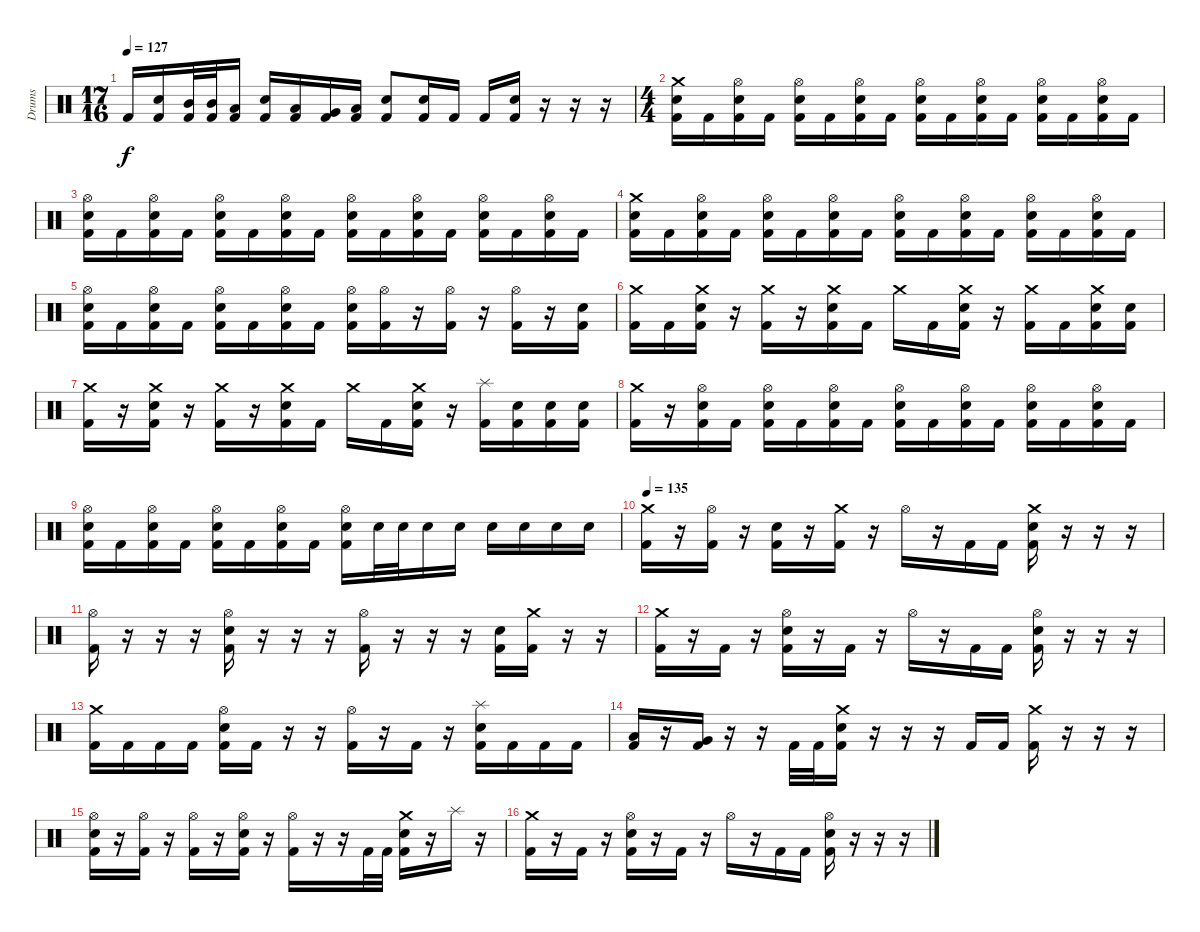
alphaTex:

\track ("Drums" "Drums") {instrument percussion}
\staff {score}
\articulation defaults
\ts (17 16)
\tempo 127
\clef neutral
\ks c "Kick (hit) 2".16{dy f}
("Electric Snare (hit)" "Kick (hit) 2").16 ("Mid Tom (hit)" "Kick (hit) 2").32 ("Mid Tom (hit)" "Kick (hit) 2").32 ("Low Tom (hit)" "Kick (hit) 2").16 ("Electric Snare (hit)" "Kick (hit) 2").16 ("Low Tom (hit)" "Kick (hit) 2").16 ("Very Low Tom (hit)" "Kick (hit) 2").16 ("Low Floor Tom (hit)" "Kick (hit) 2").16 ("Electric Snare (hit)" "Kick (hit) 2").8 ("Electric Snare (hit)" "Kick (hit) 2").16 "Kick (hit) 2".16 "Kick (hit) 2".16 ("Electric Snare (hit)" "Kick (hit) 2").16 r.16 r.16 r.16 |
\ts (4 4)
("Crash medium (hit)" "Electric Snare (hit)" "Kick (hit) 2").16 "Kick (hit) 2".16 ("Hi-Hat (open)" "Electric Snare (hit)" "Kick (hit) 2").16 "Kick (hit) 2".16 ("Hi-Hat (open)" "Electric Snare (hit)" "Kick (hit) 2").16 "Kick (hit) 2".16 ("Hi-Hat (open)" "Electric Snare (hit)" "Kick (hit) 2").16 "Kick (hit) 2".16 ("Hi-Hat (open)" "Electric Snare (hit)" "Kick (hit) 2").16 "Kick (hit) 2".16 ("Hi-Hat (open)" "Electric Snare (hit)" "Kick (hit) 2").16 "Kick (hit) 2".16 ("Hi-Hat (open)" "Electric Snare (hit)" "Kick (hit) 2").16 "Kick (hit) 2".16 ("Hi-Hat (open)" "Electric Snare (hit)" "Kick (hit) 2").16 "Kick (hit) 2".16 |
("Hi-Hat (open)" "Electric Snare (hit)" "Kick (hit) 2").16 "Kick (hit) 2".16 ("Hi-Hat (open)" "Electric Snare (hit)" "Kick (hit) 2").16 "Kick (hit) 2".16 ("Hi-Hat (open)" "Electric Snare (hit)" "Kick (hit) 2").16 "Kick (hit) 2".16 ("Hi-Hat (open)" "Electric Snare (hit)" "Kick (hit) 2").16 "Kick (hit) 2".16 ("Hi-Hat (open)" "Electric Snare (hit)" "Kick (hit) 2").16 "Kick (hit) 2".16 ("Hi-Hat (open)" "Electric Snare (hit)" "Kick (hit) 2").16 "Kick (hit) 2".16 ("Hi-Hat (open)" "Electric Snare (hit)" "Kick (hit) 2").16 "Kick (hit) 2".16 ("Hi-Hat (open)" "Electric Snare (hit)" "Kick (hit) 2").16 "Kick (hit) 2".16 |
("Crash medium (hit)" "Electric Snare (hit)" "Kick (hit) 2").16 "Kick (hit) 2".16 ("Hi-Hat (open)" "Electric Snare (hit)" "Kick (hit) 2").16 "Kick (hit) 2".16 ("Hi-Hat (open)" "Electric Snare (hit)" "Kick (hit) 2").16 "Kick (hit) 2".16 ("Hi-Hat (open)" "Electric Snare (hit)" "Kick (hit) 2").16 "Kick (hit) 2".16 ("Hi-Hat (open)" "Electric Snare (hit)" "Kick (hit) 2").16 "Kick (hit) 2".16 ("Hi-Hat (open)" "Electric Snare (hit)" "Kick (hit) 2").16 "Kick (hit) 2".16 ("Hi-Hat (open)" "Electric Snare (hit)" "Kick (hit) 2").16 "Kick (hit) 2".16 ("Hi-Hat (open)" "Electric Snare (hit)" "Kick (hit) 2").16 "Kick (hit) 2".16 |
("Hi-Hat (open)" "Electric Snare (hit)" "Kick (hit) 2").16 "Kick (hit) 2".16 ("Hi-Hat (open)" "Electric Snare (hit)" "Kick (hit) 2").16 "Kick (hit) 2".16 ("Hi-Hat (open)" "Electric Snare (hit)" "Kick (hit) 2").16 "Kick (hit) 2".16 ("Hi-Hat (open)" "Electric Snare (hit)" "Kick (hit) 2").16 "Kick (hit) 2".16 ("Hi-Hat (open)" "Electric Snare (hit)" "Kick (hit) 2").16 ("Hi-Hat (open)" "Kick (hit) 2").16 r.16 ("Hi-Hat (open)" "Kick (hit) 2").16 r.16 ("Hi-Hat (open)" "Kick (hit) 2").16 r.16 ("Electric Snare (hit)" "Kick (hit) 2").16 |
("Crash medium (hit)" "Kick (hit) 2").16 "Kick (hit) 2".16 ("Crash medium (hit)" "Electric Snare (hit)" "Kick (hit) 2").16 r.16 ("Crash medium (hit)" "Kick (hit) 2").16 r.16 ("Crash medium (hit)" "Electric Snare (hit)" "Kick (hit) 2").16 "Kick (hit) 2".16 "Crash medium (hit)".16 "Kick (hit) 2".16 ("Crash medium (hit)" "Electric Snare (hit)" "Kick (hit) 2").16 r.16 ("Crash medium (hit)" "Kick (hit) 2").16 "Kick (hit) 2".16 ("Crash medium (hit)" "Electric Snare (hit)" "Kick (hit) 2").16 ("Electric Snare (hit)" "Kick (hit) 2").16 |
("Crash medium (hit)" "Kick (hit) 2").16 r.16 ("Crash medium (hit)" "Electric Snare (hit)" "Kick (hit) 2").16 r.16 ("Crash medium (hit)" "Kick (hit) 2").16 r.16 ("Crash medium (hit)" "Electric Snare (hit)" "Kick (hit) 2").16 "Kick (hit) 2".16 "Crash medium (hit)".16 "Kick (hit) 2".16 ("Crash medium (hit)" "Electric Snare (hit)" "Kick (hit) 2").16 r.16 ("Splash (hit)" "Kick (hit) 2").16 ("Electric Snare (hit)" "Kick (hit) 2").16 ("Electric Snare (hit)" "Kick (hit) 2").16 ("Electric Snare (hit)" "Kick (hit) 2").16 |
("Crash medium (hit)" "Kick (hit) 2").16 r.16 ("Hi-Hat (open)" "Electric Snare (hit)" "Kick (hit) 2").16 "Kick (hit) 2".16 ("Hi-Hat (open)" "Electric Snare (hit)" "Kick (hit) 2").16 "Kick (hit) 2".16 ("Hi-Hat (open)" "Electric Snare (hit)" "Kick (hit) 2").16 "Kick (hit) 2".16 ("Hi-Hat (open)" "Electric Snare (hit)" "Kick (hit) 2").16 "Kick (hit) 2".16 ("Hi-Hat (open)" "Electric Snare (hit)" "Kick (hit) 2").16 "Kick (hit) 2".16 ("Hi-Hat (open)" "Electric Snare (hit)" "Kick (hit) 2").16 "Kick (hit) 2".16 ("Hi-Hat (open)" "Electric Snare (hit)" "Kick (hit) 2").16 "Kick (hit) 2".16 |
("Hi-Hat (open)" "Electric Snare (hit)" "Kick (hit) 2").16 "Kick (hit) 2".16 ("Hi-Hat (open)" "Electric Snare (hit)" "Kick (hit) 2").16 "Kick (hit) 2".16 ("Hi-Hat (open)" "Electric Snare (hit)" "Kick (hit) 2").16 "Kick (hit) 2".16 ("Hi-Hat (open)" "Electric Snare (hit)" "Kick (hit) 2").16 "Kick (hit) 2".16 ("Hi-Hat (open)" "Electric Snare (hit)" "Kick (hit) 2").16 "Electric Snare (hit)".32 "Electric Snare (hit)".32 "Electric Snare (hit)".16 "Electric Snare (hit)".16 "Electric Snare (hit)".16 "Electric Snare (hit)".16 "Electric Snare (hit)".16 "Electric Snare (hit)".16 |
\section ("" "")
\tempo 135
("Crash medium (hit)" "Kick (hit) 2").16 r.16 ("Hi-Hat (open)" "Kick (hit) 2").16 r.16 ("Electric Snare (hit)" "Kick (hit) 2").16 r.16 ("Crash medium (hit)" "Kick (hit) 2").16 r.16 "Hi-Hat (open)".16 r.16 "Kick (hit) 2".16 "Kick (hit) 2".16 ("Crash medium (hit)" "Electric Snare (hit)" "Kick (hit) 2").16 r.16 r.16 r.16 |
("Hi-Hat (open)" "Kick (hit) 2").16 r.16 r.16 r.16 ("Hi-Hat (open)" "Electric Snare (hit)" "Kick (hit) 2").16 r.16 r.16 r.16 ("Hi-Hat (open)" "Kick (hit) 2").16 r.16 r.16 r.16 ("Electric Snare (hit)" "Kick (hit) 2").16 ("Crash medium (hit)" "Kick (hit) 2").16 r.16 r.16 |
("Crash medium (hit)" "Kick (hit) 2").16 r.16 "Kick (hit) 2".16 r.16 ("Hi-Hat (open)" "Electric Snare (hit)" "Kick (hit) 2").16 r.16 "Kick (hit) 2".16 r.16 "Hi-Hat (open)".16 r.16 "Kick (hit) 2".16 "Kick (hit) 2".16 ("Hi-Hat (open)" "Electric Snare (hit)" "Kick (hit) 2").16 r.16 r.16 r.16 |
("Crash medium (hit)" "Kick (hit) 2").16 "Kick (hit) 2".16 "Kick (hit) 2".16 "Kick (hit) 2".16 ("Hi-Hat (open)" "Electric Snare (hit)" "Kick (hit) 2").16 "Kick (hit) 2".16 r.16 r.16 ("Hi-Hat (open)" "Kick (hit) 2").16 r.16 "Kick (hit) 2".16 r.16 ("Splash (hit)" "Electric Snare (hit)" "Kick (hit) 2").16 "Kick (hit) 2".16 "Kick (hit) 2".16 "Kick (hit) 2".16 |
("Low Tom (hit)" "Kick (hit) 2").16 r.16 ("Very Low Tom (hit)" "Kick (hit) 2").16 r.16 r.16 "Kick (hit) 2".32 "Kick (hit) 2".32 ("Crash medium (hit)" "Electric Snare (hit)" "Kick (hit) 2").16 r.16 r.16 r.16 "Kick (hit) 2".16 "Kick (hit) 2".16 ("Crash medium (hit)" "Kick (hit) 2").16 r.16 r.16 r.16 |
("Hi-Hat (open)" "Electric Snare (hit)" "Kick (hit) 2").16 r.16 ("Hi-Hat (open)" "Kick (hit) 2").16 r.16 ("Hi-Hat (open)" "Kick (hit) 2").16 r.16 ("Hi-Hat (open)" "Electric Snare (hit)" "Kick (hit) 2").16 r.16 ("Hi-Hat (open)" "Kick (hit) 2").16 r.16 r.16 "Kick (hit) 2".32 "Kick (hit) 2".32 ("Crash medium (hit)" "Electric Snare (hit)" "Kick (hit) 2").16 r.16 "Splash (hit)".16 r.16 |
("Crash medium (hit)" "Kick (hit) 2").16 r.16 "Kick (hit) 2".16 r.16 ("Hi-Hat (open)" "Electric Snare (hit)" "Kick (hit) 2").16 r.16 "Kick (hit) 2".16 r.16 "Hi-Hat (open)".16 r.16 "Kick (hit) 2".16 "Kick (hit) 2".16 ("Hi-Hat (open)" "Electric Snare (hit)" "Kick (hit) 2").16 r.16 r.16 r.16
